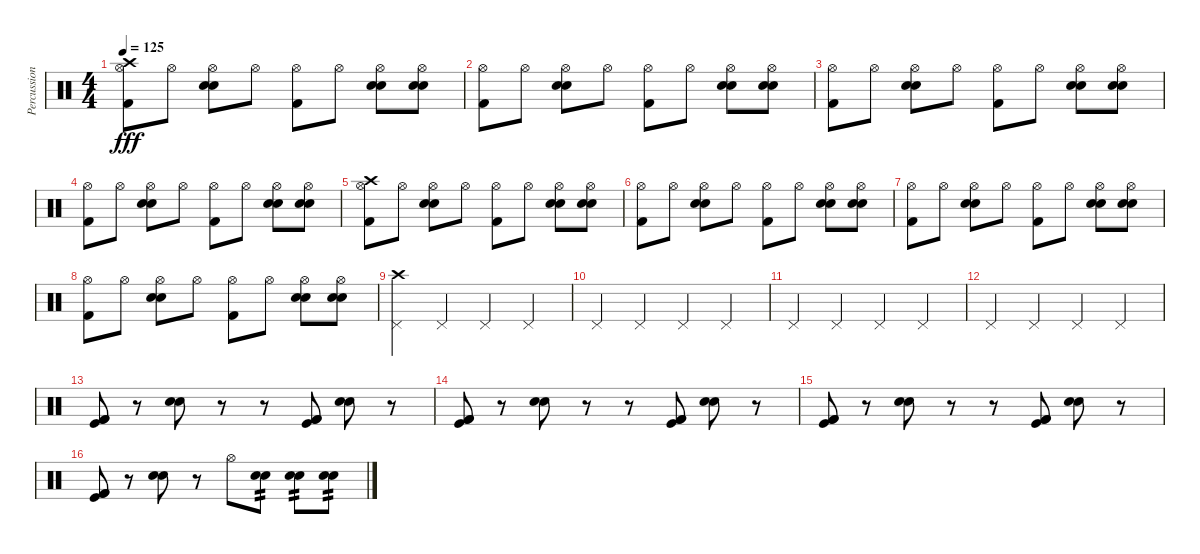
\track ("Percussion" "Percussion") {instrument percussion}
\staff {score}
\articulation defaults
\ts (4 4)
\tempo 125
\clef neutral
\ks c
("Crash high (hit)" "Hi-Hat (open)" "Kick (hit) 2").8{dy fff} "Hi-Hat (open)".8 ("Electric Snare (hit)" "Snare (hit) 2" "Hi-Hat (open)").8 "Hi-Hat (open)".8 ("Hi-Hat (open)" "Kick (hit) 2").8 "Hi-Hat (open)".8 ("Electric Snare (hit)" "Snare (hit) 2" "Hi-Hat (open)").8 ("Electric Snare (hit)" "Snare (hit) 2" "Hi-Hat (open)").8 |
("Hi-Hat (open)" "Kick (hit) 2").8 "Hi-Hat (open)".8 ("Electric Snare (hit)" "Snare (hit) 2" "Hi-Hat (open)").8 "Hi-Hat (open)".8 ("Hi-Hat (open)" "Kick (hit) 2").8 "Hi-Hat (open)".8 ("Electric Snare (hit)" "Snare (hit) 2" "Hi-Hat (open)").8 ("Electric Snare (hit)" "Snare (hit) 2" "Hi-Hat (open)").8 |
("Hi-Hat (open)" "Kick (hit) 2").8 "Hi-Hat (open)".8 ("Electric Snare (hit)" "Snare (hit) 2" "Hi-Hat (open)").8 "Hi-Hat (open)".8 ("Hi-Hat (open)" "Kick (hit) 2").8 "Hi-Hat (open)".8 ("Electric Snare (hit)" "Snare (hit) 2" "Hi-Hat (open)").8 ("Electric Snare (hit)" "Snare (hit) 2" "Hi-Hat (open)").8 |
("Hi-Hat (open)" "Kick (hit) 2").8 "Hi-Hat (open)".8 ("Electric Snare (hit)" "Snare (hit) 2" "Hi-Hat (open)").8 "Hi-Hat (open)".8 ("Hi-Hat (open)" "Kick (hit) 2").8 "Hi-Hat (open)".8 ("Electric Snare (hit)" "Snare (hit) 2" "Hi-Hat (open)").8 ("Electric Snare (hit)" "Snare (hit) 2" "Hi-Hat (open)").8 |
("Crash high (hit)" "Hi-Hat (open)" "Kick (hit) 2").8 "Hi-Hat (open)".8 ("Electric Snare (hit)" "Snare (hit) 2" "Hi-Hat (open)").8 "Hi-Hat (open)".8 ("Hi-Hat (open)" "Kick (hit) 2").8 "Hi-Hat (open)".8 ("Electric Snare (hit)" "Snare (hit) 2" "Hi-Hat (open)").8 ("Electric Snare (hit)" "Snare (hit) 2" "Hi-Hat (open)").8 |
("Hi-Hat (open)" "Kick (hit) 2").8 "Hi-Hat (open)".8 ("Electric Snare (hit)" "Snare (hit) 2" "Hi-Hat (open)").8 "Hi-Hat (open)".8 ("Hi-Hat (open)" "Kick (hit) 2").8 "Hi-Hat (open)".8 ("Electric Snare (hit)" "Snare (hit) 2" "Hi-Hat (open)").8 ("Electric Snare (hit)" "Snare (hit) 2" "Hi-Hat (open)").8 |
("Hi-Hat (open)" "Kick (hit) 2").8 "Hi-Hat (open)".8 ("Electric Snare (hit)" "Snare (hit) 2" "Hi-Hat (open)").8 "Hi-Hat (open)".8 ("Hi-Hat (open)" "Kick (hit) 2").8 "Hi-Hat (open)".8 ("Electric Snare (hit)" "Snare (hit) 2" "Hi-Hat (open)").8 ("Electric Snare (hit)" "Snare (hit) 2" "Hi-Hat (open)").8 |
("Hi-Hat (open)" "Kick (hit) 2").8 "Hi-Hat (open)".8 ("Electric Snare (hit)" "Snare (hit) 2" "Hi-Hat (open)").8 "Hi-Hat (open)".8 ("Hi-Hat (open)" "Kick (hit) 2").8 "Hi-Hat (open)".8 ("Electric Snare (hit)" "Snare (hit) 2" "Hi-Hat (open)").8 ("Electric Snare (hit)" "Snare (hit) 2" "Hi-Hat (open)").8 |
("Crash high (hit)" "Pedal Hi-Hat (hit)").4 "Pedal Hi-Hat (hit)".4 "Pedal Hi-Hat (hit)".4 "Pedal Hi-Hat (hit)".4 |
"Pedal Hi-Hat (hit)".4 "Pedal Hi-Hat (hit)".4 "Pedal Hi-Hat (hit)".4 "Pedal Hi-Hat (hit)".4 |
"Pedal Hi-Hat (hit)".4 "Pedal Hi-Hat (hit)".4 "Pedal Hi-Hat (hit)".4 "Pedal Hi-Hat (hit)".4 |
"Pedal Hi-Hat (hit)".4 "Pedal Hi-Hat (hit)".4 "Pedal Hi-Hat (hit)".4 "Pedal Hi-Hat (hit)".4 |
("Kick (hit) 2" "Kick (hit)" "Kick (hit) 2").8 r.8 ("Electric Snare (hit)" "Snare (hit) 2").8 r.8 r.8 ("Kick (hit) 2" "Kick (hit)" "Kick (hit) 2").8 ("Electric Snare (hit)" "Snare (hit) 2").8 r.8 |
("Kick (hit) 2" "Kick (hit)" "Kick (hit) 2").8 r.8 ("Electric Snare (hit)" "Snare (hit) 2").8 r.8 r.8 ("Kick (hit) 2" "Kick (hit)" "Kick (hit) 2").8 ("Electric Snare (hit)" "Snare (hit) 2").8 r.8 |
("Kick (hit) 2" "Kick (hit)" "Kick (hit) 2").8 r.8 ("Electric Snare (hit)" "Snare (hit) 2").8 r.8 r.8 ("Kick (hit) 2" "Kick (hit)" "Kick (hit) 2").8 ("Electric Snare (hit)" "Snare (hit) 2").8 r.8 |
("Kick (hit) 2" "Kick (hit)" "Kick (hit) 2").8 r.8 ("Electric Snare (hit)" "Snare (hit) 2").8 r.8 "Hi-Hat (open)".8 ("Electric Snare (hit)" "Snare (hit) 2").8{tp 2} ("Electric Snare (hit)" "Snare (hit) 2").8{tp 2} ("Electric Snare (hit)" "Snare (hit) 2").8{tp 2}
